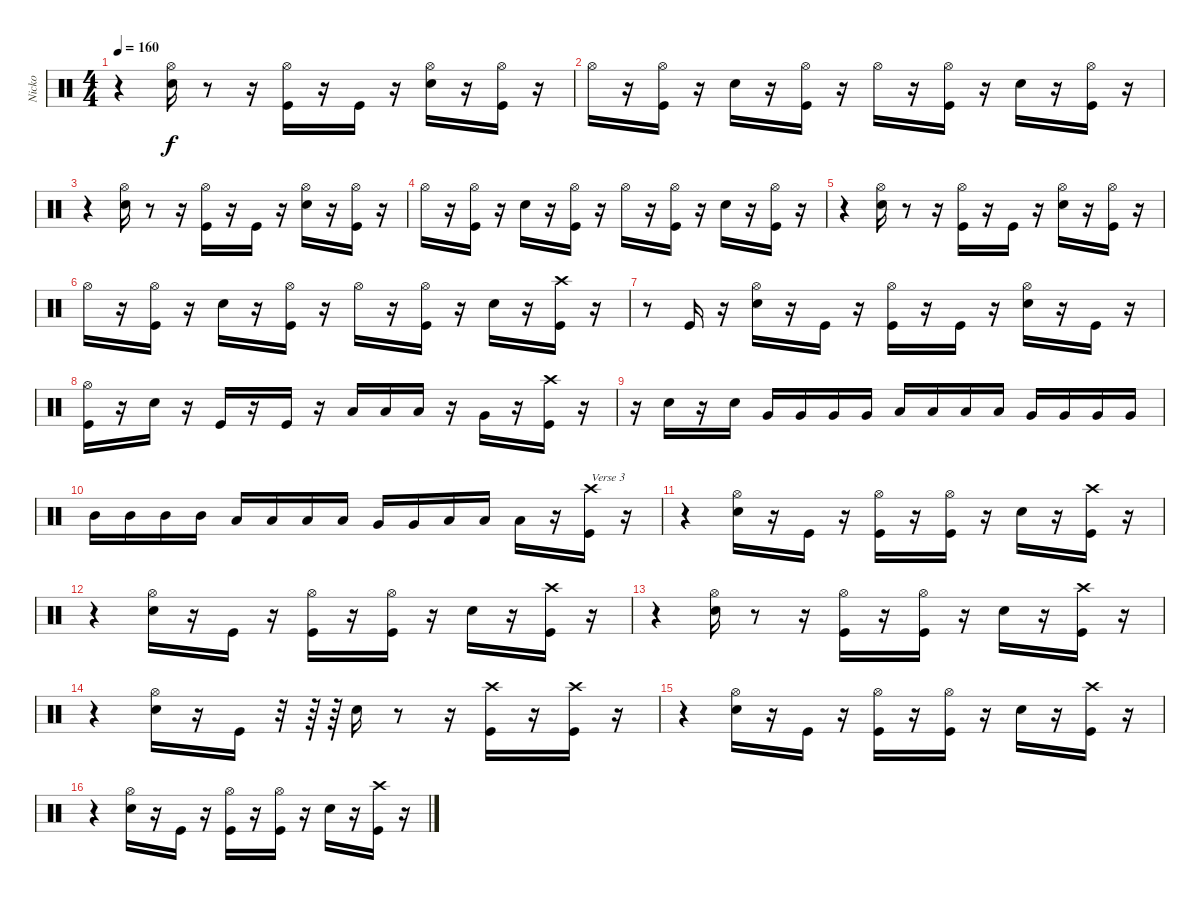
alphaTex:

\track ("Nicko" "Nicko") {instrument percussion}
\staff {score}
\articulation defaults
\ts (4 4)
\tempo 160
\clef neutral
\ks c
r.4{dy f} ("Snare (hit) 2" "Hi-Hat (open)").16 r.8 r.16 ("Kick (hit)" "Hi-Hat (open)").16 r.16 "Kick (hit)".16 r.16 ("Snare (hit) 2" "Hi-Hat (open)").16 r.16 ("Kick (hit)" "Hi-Hat (open)").16 r.16 |
"Hi-Hat (open)".16 r.16 ("Kick (hit)" "Hi-Hat (open)").16 r.16 "Snare (hit) 2".16 r.16 ("Kick (hit)" "Hi-Hat (open)").16 r.16 "Hi-Hat (open)".16 r.16 ("Kick (hit)" "Hi-Hat (open)").16 r.16 "Snare (hit) 2".16 r.16 ("Kick (hit)" "Hi-Hat (open)").16 r.16 |
r.4 ("Snare (hit) 2" "Hi-Hat (open)").16 r.8 r.16 ("Kick (hit)" "Hi-Hat (open)").16 r.16 "Kick (hit)".16 r.16 ("Snare (hit) 2" "Hi-Hat (open)").16 r.16 ("Kick (hit)" "Hi-Hat (open)").16 r.16 |
"Hi-Hat (open)".16 r.16 ("Kick (hit)" "Hi-Hat (open)").16 r.16 "Snare (hit) 2".16 r.16 ("Kick (hit)" "Hi-Hat (open)").16 r.16 "Hi-Hat (open)".16 r.16 ("Kick (hit)" "Hi-Hat (open)").16 r.16 "Snare (hit) 2".16 r.16 ("Kick (hit)" "Hi-Hat (open)").16 r.16 |
r.4 ("Snare (hit) 2" "Hi-Hat (open)").16 r.8 r.16 ("Kick (hit)" "Hi-Hat (open)").16 r.16 "Kick (hit)".16 r.16 ("Snare (hit) 2" "Hi-Hat (open)").16 r.16 ("Kick (hit)" "Hi-Hat (open)").16 r.16 |
"Hi-Hat (open)".16 r.16 ("Kick (hit)" "Hi-Hat (open)").16 r.16 "Snare (hit) 2".16 r.16 ("Kick (hit)" "Hi-Hat (open)").16 r.16 "Hi-Hat (open)".16 r.16 ("Kick (hit)" "Hi-Hat (open)").16 r.16 "Snare (hit) 2".16 r.16 ("Kick (hit)" "Crash high (hit)").16 r.16 |
r.8 "Kick (hit)".16 r.16 ("Hi-Hat (open)" "Snare (hit) 2").16 r.16 "Kick (hit)".16 r.16 ("Kick (hit)" "Hi-Hat (open)").16 r.16 "Kick (hit)".16 r.16 ("Hi-Hat (open)" "Snare (hit) 2").16 r.16 "Kick (hit)".16 r.16 |
("Hi-Hat (open)" "Kick (hit)").16 r.16 "Snare (hit) 2".16 r.16 "Kick (hit)".16 r.16 "Kick (hit)".16 r.16 "Low Tom (hit)".16 "Low Tom (hit)".16 "Low Tom (hit)".16 r.16 "Very Low Tom (hit)".16 r.16 ("Kick (hit)" "Crash high (hit)").16 r.16 |
r.16 "Electric Snare (hit)".16 r.16 "Electric Snare (hit)".16 "Very Low Tom (hit)".16 "Very Low Tom (hit)".16 "Very Low Tom (hit)".16 "Very Low Tom (hit)".16 "Low Tom (hit)".16 "Low Tom (hit)".16 "Low Tom (hit)".16 "Low Tom (hit)".16 "Very Low Tom (hit)".16 "Very Low Tom (hit)".16 "Very Low Tom (hit)".16 "Very Low Tom (hit)".16 |
"Mid Tom (hit)".16 "Mid Tom (hit)".16 "Mid Tom (hit)".16 "Mid Tom (hit)".16 "Low Tom (hit)".16 "Low Tom (hit)".16 "Low Tom (hit)".16 "Low Tom (hit)".16 "Very Low Tom (hit)".16 "Very Low Tom (hit)".16 "Low Floor Tom (hit)".16 "Low Floor Tom (hit)".16 "Low Floor Tom (hit)".16 r.16 ("Kick (hit)" "Crash high (hit)").16{txt "Verse 3"} r.16 |
r.4 ("Snare (hit) 2" "Hi-Hat (open)").16 r.16 "Kick (hit)".16 r.16 ("Hi-Hat (open)" "Kick (hit)").16 r.16 ("Kick (hit)" "Hi-Hat (open)").16 r.16 "Snare (hit) 2".16 r.16 ("Kick (hit)" "Crash high (hit)").16 r.16 |
r.4 ("Snare (hit) 2" "Hi-Hat (open)").16 r.16 "Kick (hit)".16 r.16 ("Hi-Hat (open)" "Kick (hit)").16 r.16 ("Kick (hit)" "Hi-Hat (open)").16 r.16 "Snare (hit) 2".16 r.16 ("Kick (hit)" "Crash high (hit)").16 r.16 |
r.4 ("Snare (hit) 2" "Hi-Hat (open)").16 r.8 r.16 ("Hi-Hat (open)" "Kick (hit)").16 r.16 ("Hi-Hat (open)" "Kick (hit)").16 r.16 "Snare (hit) 2".16 r.16 ("Kick (hit)" "Crash high (hit)").16 r.16 |
r.4 ("Hi-Hat (open)" "Snare (hit) 2").16 r.16 "Kick (hit)".16 r.32 r.64 r.64 "Snare (hit) 2".16 r.8 r.16 ("Kick (hit)" "Crash high (hit)").16 r.16 ("Kick (hit)" "Crash high (hit)").16 r.16 |
r.4 ("Snare (hit) 2" "Hi-Hat (open)").16 r.16 "Kick (hit)".16 r.16 ("Hi-Hat (open)" "Kick (hit)").16 r.16 ("Kick (hit)" "Hi-Hat (open)").16 r.16 "Snare (hit) 2".16 r.16 ("Kick (hit)" "Crash high (hit)").16 r.16 |
r.4 ("Snare (hit) 2" "Hi-Hat (open)").16 r.16 "Kick (hit)".16 r.16 ("Hi-Hat (open)" "Kick (hit)").16 r.16 ("Kick (hit)" "Hi-Hat (open)").16 r.16 "Snare (hit) 2".16 r.16 ("Kick (hit)" "Crash high (hit)").16 r.16
